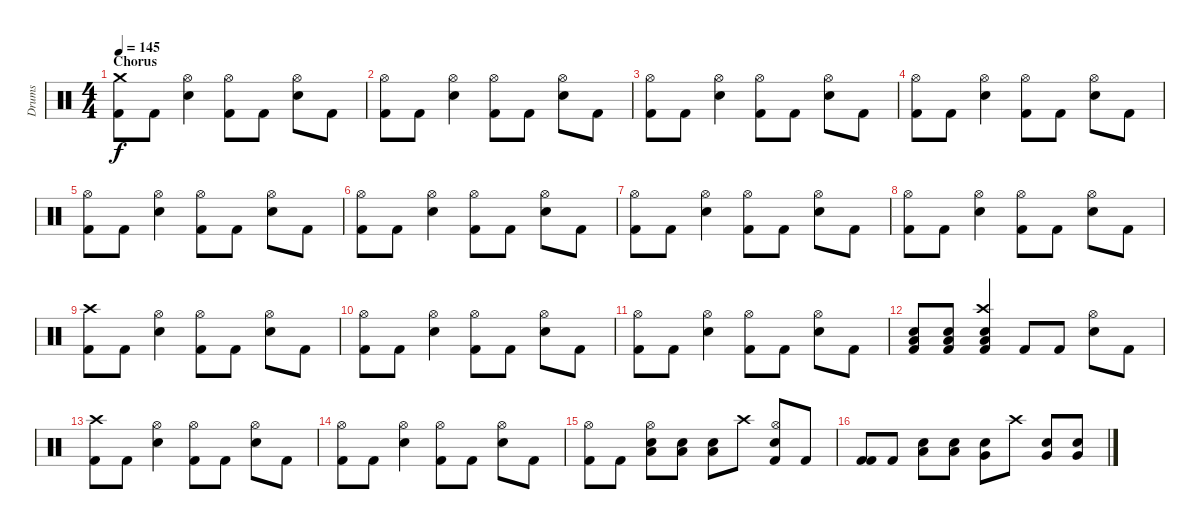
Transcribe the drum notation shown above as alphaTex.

\track ("Drums" "Drums") {instrument percussion}
\staff {score}
\articulation defaults
\ts (4 4)
\section ("" "Chorus")
\tempo 145
\clef neutral
\ks c
("Crash medium (hit)" "Kick (hit) 2").8{dy f} "Kick (hit) 2".8 ("Hi-Hat (open)" "Electric Snare (hit)").4 ("Hi-Hat (open)" "Kick (hit) 2").8 "Kick (hit) 2".8 ("Hi-Hat (open)" "Electric Snare (hit)").8 "Kick (hit) 2".8 |
("Hi-Hat (open)" "Kick (hit) 2").8 "Kick (hit) 2".8 ("Hi-Hat (open)" "Electric Snare (hit)").4 ("Hi-Hat (open)" "Kick (hit) 2").8 "Kick (hit) 2".8 ("Hi-Hat (open)" "Electric Snare (hit)").8 "Kick (hit) 2".8 |
("Hi-Hat (open)" "Kick (hit) 2").8 "Kick (hit) 2".8 ("Hi-Hat (open)" "Electric Snare (hit)").4 ("Hi-Hat (open)" "Kick (hit) 2").8 "Kick (hit) 2".8 ("Hi-Hat (open)" "Electric Snare (hit)").8 "Kick (hit) 2".8 |
("Hi-Hat (open)" "Kick (hit) 2").8 "Kick (hit) 2".8 ("Hi-Hat (open)" "Electric Snare (hit)").4 ("Hi-Hat (open)" "Kick (hit) 2").8 "Kick (hit) 2".8 ("Hi-Hat (open)" "Electric Snare (hit)").8 "Kick (hit) 2".8 |
("Hi-Hat (open)" "Kick (hit) 2").8 "Kick (hit) 2".8 ("Hi-Hat (open)" "Electric Snare (hit)").4 ("Hi-Hat (open)" "Kick (hit) 2").8 "Kick (hit) 2".8 ("Hi-Hat (open)" "Electric Snare (hit)").8 "Kick (hit) 2".8 |
("Hi-Hat (open)" "Kick (hit) 2").8 "Kick (hit) 2".8 ("Hi-Hat (open)" "Electric Snare (hit)").4 ("Hi-Hat (open)" "Kick (hit) 2").8 "Kick (hit) 2".8 ("Hi-Hat (open)" "Electric Snare (hit)").8 "Kick (hit) 2".8 |
("Hi-Hat (open)" "Kick (hit) 2").8 "Kick (hit) 2".8 ("Hi-Hat (open)" "Electric Snare (hit)").4 ("Hi-Hat (open)" "Kick (hit) 2").8 "Kick (hit) 2".8 ("Hi-Hat (open)" "Electric Snare (hit)").8 "Kick (hit) 2".8 |
("Hi-Hat (open)" "Kick (hit) 2").8 "Kick (hit) 2".8 ("Hi-Hat (open)" "Electric Snare (hit)").4 ("Hi-Hat (open)" "Kick (hit) 2").8 "Kick (hit) 2".8 ("Hi-Hat (open)" "Electric Snare (hit)").8 "Kick (hit) 2".8 |
("Crash high (hit)" "Kick (hit) 2").8 "Kick (hit) 2".8 ("Hi-Hat (open)" "Electric Snare (hit)").4 ("Hi-Hat (open)" "Kick (hit) 2").8 "Kick (hit) 2".8 ("Hi-Hat (open)" "Electric Snare (hit)").8 "Kick (hit) 2".8 |
("Hi-Hat (open)" "Kick (hit) 2").8 "Kick (hit) 2".8 ("Hi-Hat (open)" "Electric Snare (hit)").4 ("Hi-Hat (open)" "Kick (hit) 2").8 "Kick (hit) 2".8 ("Hi-Hat (open)" "Electric Snare (hit)").8 "Kick (hit) 2".8 |
("Hi-Hat (open)" "Kick (hit) 2").8 "Kick (hit) 2".8 ("Hi-Hat (open)" "Electric Snare (hit)").4 ("Hi-Hat (open)" "Kick (hit) 2").8 "Kick (hit) 2".8 ("Hi-Hat (open)" "Electric Snare (hit)").8 "Kick (hit) 2".8 |
("Low Tom (hit)" "Electric Snare (hit)" "Kick (hit) 2").8 ("Low Tom (hit)" "Electric Snare (hit)" "Kick (hit) 2").8 ("Crash high (hit)" "Low Tom (hit)" "Electric Snare (hit)" "Kick (hit) 2").4 "Kick (hit) 2".8 "Kick (hit) 2".8 ("Hi-Hat (open)" "Electric Snare (hit)").8 "Kick (hit) 2".8 |
("Crash high (hit)" "Kick (hit) 2").8 "Kick (hit) 2".8 ("Hi-Hat (open)" "Electric Snare (hit)").4 ("Hi-Hat (open)" "Kick (hit) 2").8 "Kick (hit) 2".8 ("Hi-Hat (open)" "Electric Snare (hit)").8 "Kick (hit) 2".8 |
("Hi-Hat (open)" "Kick (hit) 2").8 "Kick (hit) 2".8 ("Hi-Hat (open)" "Electric Snare (hit)").4 ("Hi-Hat (open)" "Kick (hit) 2").8 "Kick (hit) 2".8 ("Hi-Hat (open)" "Electric Snare (hit)").8 "Kick (hit) 2".8 |
("Hi-Hat (open)" "Kick (hit) 2").8 "Kick (hit) 2".8 ("Hi-Hat (open)" "Electric Snare (hit)" "Low Tom (hit)").8 ("Electric Snare (hit)" "Low Tom (hit)").8 ("Electric Snare (hit)" "Low Tom (hit)").8 "Crash high (hit)".8 ("Hi-Hat (open)" "Electric Snare (hit)" "Kick (hit) 2").8 "Kick (hit) 2".8 |
("Kick (hit) 2" "Kick (hit) 2").8 "Kick (hit) 2".8 ("Electric Snare (hit)" "Low Tom (hit)").8 ("Electric Snare (hit)" "Low Tom (hit)").8 ("Electric Snare (hit)" "Very Low Tom (hit)").8 "Crash high (hit)".8 ("Electric Snare (hit)" "Very Low Tom (hit)").8 ("Electric Snare (hit)" "Very Low Tom (hit)").8
